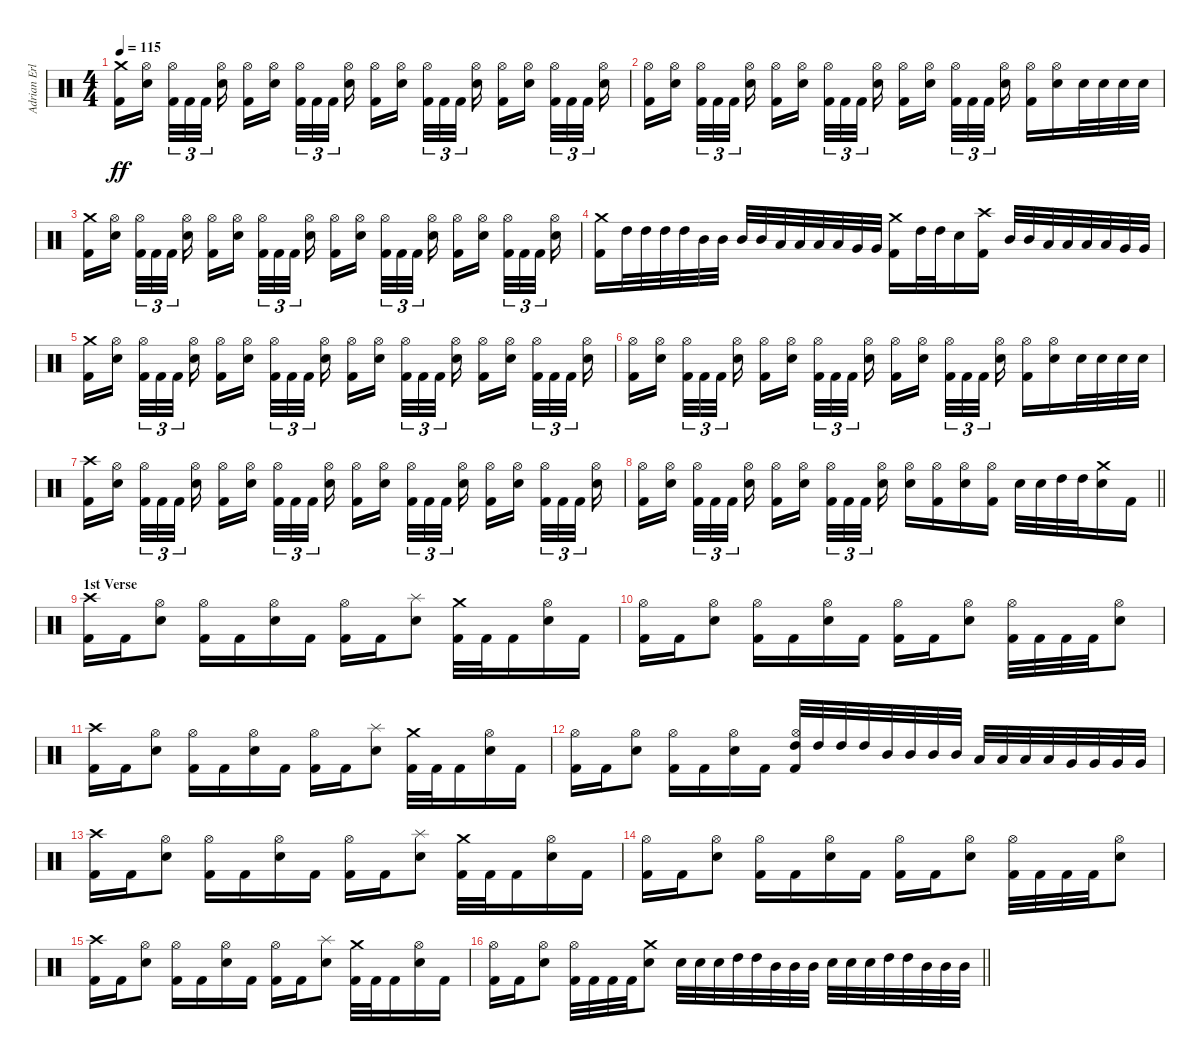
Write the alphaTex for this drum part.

\track ("Adrian Erlandsson" "Adrian Erl") {instrument percussion}
\staff {score}
\articulation defaults
\ts (4 4)
\tempo 115
\clef neutral
\ks c
("Kick (hit) 2" "Crash medium (hit)").16{dy ff} ("Electric Snare (hit)" "Hi-Hat (open)").16{beam splitsecondary} ("Kick (hit) 2" "Hi-Hat (open)").32{tu (3 2)} "Kick (hit) 2".32{tu (3 2)} "Kick (hit) 2".32{tu (3 2) beam splitsecondary} ("Electric Snare (hit)" "Hi-Hat (open)").16 ("Kick (hit) 2" "Hi-Hat (open)").16 ("Electric Snare (hit)" "Hi-Hat (open)").16{beam splitsecondary} ("Kick (hit) 2" "Hi-Hat (open)").32{tu (3 2)} "Kick (hit) 2".32{tu (3 2)} "Kick (hit) 2".32{tu (3 2) beam splitsecondary} ("Electric Snare (hit)" "Hi-Hat (open)").16 ("Kick (hit) 2" "Hi-Hat (open)").16 ("Electric Snare (hit)" "Hi-Hat (open)").16{beam splitsecondary} ("Kick (hit) 2" "Hi-Hat (open)").32{tu (3 2)} "Kick (hit) 2".32{tu (3 2)} "Kick (hit) 2".32{tu (3 2) beam splitsecondary} ("Electric Snare (hit)" "Hi-Hat (open)").16 ("Kick (hit) 2" "Hi-Hat (open)").16 ("Electric Snare (hit)" "Hi-Hat (open)").16{beam splitsecondary} ("Kick (hit) 2" "Hi-Hat (open)").32{tu (3 2)} "Kick (hit) 2".32{tu (3 2)} "Kick (hit) 2".32{tu (3 2) beam splitsecondary} ("Electric Snare (hit)" "Hi-Hat (open)").16 |
("Kick (hit) 2" "Hi-Hat (open)").16 ("Electric Snare (hit)" "Hi-Hat (open)").16{beam splitsecondary} ("Kick (hit) 2" "Hi-Hat (open)").32{tu (3 2)} "Kick (hit) 2".32{tu (3 2)} "Kick (hit) 2".32{tu (3 2) beam splitsecondary} ("Electric Snare (hit)" "Hi-Hat (open)").16 ("Kick (hit) 2" "Hi-Hat (open)").16 ("Electric Snare (hit)" "Hi-Hat (open)").16{beam splitsecondary} ("Kick (hit) 2" "Hi-Hat (open)").32{tu (3 2)} "Kick (hit) 2".32{tu (3 2)} "Kick (hit) 2".32{tu (3 2) beam splitsecondary} ("Electric Snare (hit)" "Hi-Hat (open)").16 ("Kick (hit) 2" "Hi-Hat (open)").16 ("Electric Snare (hit)" "Hi-Hat (open)").16{beam splitsecondary} ("Kick (hit) 2" "Hi-Hat (open)").32{tu (3 2)} "Kick (hit) 2".32{tu (3 2)} "Kick (hit) 2".32{tu (3 2) beam splitsecondary} ("Electric Snare (hit)" "Hi-Hat (open)").16 ("Kick (hit) 2" "Hi-Hat (open)").16 ("Electric Snare (hit)" "Hi-Hat (open)").16 "Electric Snare (hit)".32 "Electric Snare (hit)".32 "Electric Snare (hit)".32 "Electric Snare (hit)".32 |
("Kick (hit) 2" "Crash medium (hit)").16 ("Electric Snare (hit)" "Hi-Hat (open)").16{beam splitsecondary} ("Kick (hit) 2" "Hi-Hat (open)").32{tu (3 2)} "Kick (hit) 2".32{tu (3 2)} "Kick (hit) 2".32{tu (3 2) beam splitsecondary} ("Electric Snare (hit)" "Hi-Hat (open)").16 ("Kick (hit) 2" "Hi-Hat (open)").16 ("Electric Snare (hit)" "Hi-Hat (open)").16{beam splitsecondary} ("Kick (hit) 2" "Hi-Hat (open)").32{tu (3 2)} "Kick (hit) 2".32{tu (3 2)} "Kick (hit) 2".32{tu (3 2) beam splitsecondary} ("Electric Snare (hit)" "Hi-Hat (open)").16 ("Kick (hit) 2" "Hi-Hat (open)").16 ("Electric Snare (hit)" "Hi-Hat (open)").16{beam splitsecondary} ("Kick (hit) 2" "Hi-Hat (open)").32{tu (3 2)} "Kick (hit) 2".32{tu (3 2)} "Kick (hit) 2".32{tu (3 2) beam splitsecondary} ("Electric Snare (hit)" "Hi-Hat (open)").16 ("Kick (hit) 2" "Hi-Hat (open)").16 ("Electric Snare (hit)" "Hi-Hat (open)").16{beam splitsecondary} ("Kick (hit) 2" "Hi-Hat (open)").32{tu (3 2)} "Kick (hit) 2".32{tu (3 2)} "Kick (hit) 2".32{tu (3 2) beam splitsecondary} ("Electric Snare (hit)" "Hi-Hat (open)").16 |
("Kick (hit) 2" "Crash medium (hit)").16 "High Tom (hit)".32 "High Tom (hit)".32 "High Tom (hit)".32 "High Tom (hit)".32 "Mid Tom (hit)".32 "Mid Tom (hit)".32 "Mid Tom (hit)".32 "Mid Tom (hit)".32 "Low Tom (hit)".32 "Low Tom (hit)".32 "Low Tom (hit)".32 "Low Tom (hit)".32 "Very Low Tom (hit)".32 "Very Low Tom (hit)".32 ("Kick (hit) 2" "Crash medium (hit)").16 "High Tom (hit)".32 "High Tom (hit)".32 "Electric Snare (hit)".16 ("Kick (hit) 2" "Crash high (hit)").16 "Mid Tom (hit)".32 "Mid Tom (hit)".32 "Low Tom (hit)".32 "Low Tom (hit)".32 "Low Tom (hit)".32 "Low Tom (hit)".32 "Very Low Tom (hit)".32 "Very Low Tom (hit)".32 |
("Kick (hit) 2" "Crash medium (hit)").16 ("Electric Snare (hit)" "Hi-Hat (open)").16{beam splitsecondary} ("Kick (hit) 2" "Hi-Hat (open)").32{tu (3 2)} "Kick (hit) 2".32{tu (3 2)} "Kick (hit) 2".32{tu (3 2) beam splitsecondary} ("Electric Snare (hit)" "Hi-Hat (open)").16 ("Kick (hit) 2" "Hi-Hat (open)").16 ("Electric Snare (hit)" "Hi-Hat (open)").16{beam splitsecondary} ("Kick (hit) 2" "Hi-Hat (open)").32{tu (3 2)} "Kick (hit) 2".32{tu (3 2)} "Kick (hit) 2".32{tu (3 2) beam splitsecondary} ("Electric Snare (hit)" "Hi-Hat (open)").16 ("Kick (hit) 2" "Hi-Hat (open)").16 ("Electric Snare (hit)" "Hi-Hat (open)").16{beam splitsecondary} ("Kick (hit) 2" "Hi-Hat (open)").32{tu (3 2)} "Kick (hit) 2".32{tu (3 2)} "Kick (hit) 2".32{tu (3 2) beam splitsecondary} ("Electric Snare (hit)" "Hi-Hat (open)").16 ("Kick (hit) 2" "Hi-Hat (open)").16 ("Electric Snare (hit)" "Hi-Hat (open)").16{beam splitsecondary} ("Kick (hit) 2" "Hi-Hat (open)").32{tu (3 2)} "Kick (hit) 2".32{tu (3 2)} "Kick (hit) 2".32{tu (3 2) beam splitsecondary} ("Electric Snare (hit)" "Hi-Hat (open)").16 |
("Kick (hit) 2" "Hi-Hat (open)").16 ("Electric Snare (hit)" "Hi-Hat (open)").16{beam splitsecondary} ("Kick (hit) 2" "Hi-Hat (open)").32{tu (3 2)} "Kick (hit) 2".32{tu (3 2)} "Kick (hit) 2".32{tu (3 2) beam splitsecondary} ("Electric Snare (hit)" "Hi-Hat (open)").16 ("Kick (hit) 2" "Hi-Hat (open)").16 ("Electric Snare (hit)" "Hi-Hat (open)").16{beam splitsecondary} ("Kick (hit) 2" "Hi-Hat (open)").32{tu (3 2)} "Kick (hit) 2".32{tu (3 2)} "Kick (hit) 2".32{tu (3 2) beam splitsecondary} ("Electric Snare (hit)" "Hi-Hat (open)").16 ("Kick (hit) 2" "Hi-Hat (open)").16 ("Electric Snare (hit)" "Hi-Hat (open)").16{beam splitsecondary} ("Kick (hit) 2" "Hi-Hat (open)").32{tu (3 2)} "Kick (hit) 2".32{tu (3 2)} "Kick (hit) 2".32{tu (3 2) beam splitsecondary} ("Electric Snare (hit)" "Hi-Hat (open)").16 ("Kick (hit) 2" "Hi-Hat (open)").16 ("Electric Snare (hit)" "Hi-Hat (open)").16 "Electric Snare (hit)".32 "Electric Snare (hit)".32 "Electric Snare (hit)".32 "Electric Snare (hit)".32 |
("Kick (hit) 2" "Crash high (hit)").16 ("Electric Snare (hit)" "Hi-Hat (open)").16{beam splitsecondary} ("Kick (hit) 2" "Hi-Hat (open)").32{tu (3 2)} "Kick (hit) 2".32{tu (3 2)} "Kick (hit) 2".32{tu (3 2) beam splitsecondary} ("Electric Snare (hit)" "Hi-Hat (open)").16 ("Kick (hit) 2" "Hi-Hat (open)").16 ("Electric Snare (hit)" "Hi-Hat (open)").16{beam splitsecondary} ("Kick (hit) 2" "Hi-Hat (open)").32{tu (3 2)} "Kick (hit) 2".32{tu (3 2)} "Kick (hit) 2".32{tu (3 2) beam splitsecondary} ("Electric Snare (hit)" "Hi-Hat (open)").16 ("Kick (hit) 2" "Hi-Hat (open)").16 ("Electric Snare (hit)" "Hi-Hat (open)").16{beam splitsecondary} ("Kick (hit) 2" "Hi-Hat (open)").32{tu (3 2)} "Kick (hit) 2".32{tu (3 2)} "Kick (hit) 2".32{tu (3 2) beam splitsecondary} ("Electric Snare (hit)" "Hi-Hat (open)").16 ("Kick (hit) 2" "Hi-Hat (open)").16 ("Electric Snare (hit)" "Hi-Hat (open)").16{beam splitsecondary} ("Kick (hit) 2" "Hi-Hat (open)").32{tu (3 2)} "Kick (hit) 2".32{tu (3 2)} "Kick (hit) 2".32{tu (3 2) beam splitsecondary} ("Electric Snare (hit)" "Hi-Hat (open)").16 |
\barLineRight lightlight
("Kick (hit) 2" "Hi-Hat (open)").16 ("Electric Snare (hit)" "Hi-Hat (open)").16{beam splitsecondary} ("Kick (hit) 2" "Hi-Hat (open)").32{tu (3 2)} "Kick (hit) 2".32{tu (3 2)} "Kick (hit) 2".32{tu (3 2) beam splitsecondary} ("Electric Snare (hit)" "Hi-Hat (open)").16 ("Kick (hit) 2" "Hi-Hat (open)").16 ("Electric Snare (hit)" "Hi-Hat (open)").16{beam splitsecondary} ("Kick (hit) 2" "Hi-Hat (open)").32{tu (3 2)} "Kick (hit) 2".32{tu (3 2)} "Kick (hit) 2".32{tu (3 2) beam splitsecondary} ("Electric Snare (hit)" "Hi-Hat (open)").16 ("Electric Snare (hit)" "Hi-Hat (open)").16 ("Kick (hit) 2" "Hi-Hat (open)").16 ("Electric Snare (hit)" "Hi-Hat (open)").16 ("Kick (hit) 2" "Hi-Hat (open)").16 "Electric Snare (hit)".32 "Electric Snare (hit)".32 "High Tom (hit)".32 "High Tom (hit)".32 ("Electric Snare (hit)" "Crash medium (hit)").16 "Kick (hit) 2".16 |
\section ("" "1st Verse")
("Kick (hit) 2" "Crash high (hit)").16 "Kick (hit) 2".16 ("Electric Snare (hit)" "Hi-Hat (open)").8 ("Kick (hit) 2" "Hi-Hat (open)").16 "Kick (hit) 2".16 ("Electric Snare (hit)" "Hi-Hat (open)").16 "Kick (hit) 2".16 ("Kick (hit) 2" "Hi-Hat (open)").16 "Kick (hit) 2".16 ("Electric Snare (hit)" "Splash (hit)").8 ("Kick (hit) 2" "Crash medium (hit)").32 "Kick (hit) 2".32 "Kick (hit) 2".16 ("Electric Snare (hit)" "Hi-Hat (open)").16 "Kick (hit) 2".16 |
("Kick (hit) 2" "Hi-Hat (open)").16 "Kick (hit) 2".16 ("Electric Snare (hit)" "Hi-Hat (open)").8 ("Kick (hit) 2" "Hi-Hat (open)").16 "Kick (hit) 2".16 ("Electric Snare (hit)" "Hi-Hat (open)").16 "Kick (hit) 2".16 ("Kick (hit) 2" "Hi-Hat (open)").16 "Kick (hit) 2".16 ("Electric Snare (hit)" "Hi-Hat (open)").8 ("Kick (hit) 2" "Hi-Hat (open)").32 "Kick (hit) 2".32 "Kick (hit) 2".32 "Kick (hit) 2".32 ("Electric Snare (hit)" "Hi-Hat (open)").8 |
("Kick (hit) 2" "Crash high (hit)").16 "Kick (hit) 2".16 ("Electric Snare (hit)" "Hi-Hat (open)").8 ("Kick (hit) 2" "Hi-Hat (open)").16 "Kick (hit) 2".16 ("Electric Snare (hit)" "Hi-Hat (open)").16 "Kick (hit) 2".16 ("Kick (hit) 2" "Hi-Hat (open)").16 "Kick (hit) 2".16 ("Electric Snare (hit)" "Splash (hit)").8 ("Kick (hit) 2" "Crash medium (hit)").32 "Kick (hit) 2".32 "Kick (hit) 2".16 ("Electric Snare (hit)" "Hi-Hat (open)").16 "Kick (hit) 2".16 |
("Kick (hit) 2" "Hi-Hat (open)").16 "Kick (hit) 2".16 ("Electric Snare (hit)" "Hi-Hat (open)").8 ("Kick (hit) 2" "Hi-Hat (open)").16 "Kick (hit) 2".16 ("Electric Snare (hit)" "Hi-Hat (open)").16 "Kick (hit) 2".16 ("Kick (hit) 2" "High Tom (hit)" "Hi-Hat (open)").32 "High Tom (hit)".32 "High Tom (hit)".32 "High Tom (hit)".32 "Mid Tom (hit)".32 "Mid Tom (hit)".32 "Mid Tom (hit)".32 "Mid Tom (hit)".32 "Low Tom (hit)".32 "Low Tom (hit)".32 "Low Tom (hit)".32 "Low Tom (hit)".32 "Very Low Tom (hit)".32 "Very Low Tom (hit)".32 "Very Low Tom (hit)".32 "Very Low Tom (hit)".32 |
("Kick (hit) 2" "Crash high (hit)").16 "Kick (hit) 2".16 ("Electric Snare (hit)" "Hi-Hat (open)").8 ("Kick (hit) 2" "Hi-Hat (open)").16 "Kick (hit) 2".16 ("Electric Snare (hit)" "Hi-Hat (open)").16 "Kick (hit) 2".16 ("Kick (hit) 2" "Hi-Hat (open)").16 "Kick (hit) 2".16 ("Electric Snare (hit)" "Splash (hit)").8 ("Kick (hit) 2" "Crash medium (hit)").32 "Kick (hit) 2".32 "Kick (hit) 2".16 ("Electric Snare (hit)" "Hi-Hat (open)").16 "Kick (hit) 2".16 |
("Kick (hit) 2" "Hi-Hat (open)").16 "Kick (hit) 2".16 ("Electric Snare (hit)" "Hi-Hat (open)").8 ("Kick (hit) 2" "Hi-Hat (open)").16 "Kick (hit) 2".16 ("Electric Snare (hit)" "Hi-Hat (open)").16 "Kick (hit) 2".16 ("Kick (hit) 2" "Hi-Hat (open)").16 "Kick (hit) 2".16 ("Electric Snare (hit)" "Hi-Hat (open)").8 ("Kick (hit) 2" "Hi-Hat (open)").32 "Kick (hit) 2".32 "Kick (hit) 2".32 "Kick (hit) 2".32 ("Electric Snare (hit)" "Hi-Hat (open)").8 |
("Kick (hit) 2" "Crash high (hit)").16 "Kick (hit) 2".16 ("Electric Snare (hit)" "Hi-Hat (open)").8 ("Kick (hit) 2" "Hi-Hat (open)").16 "Kick (hit) 2".16 ("Electric Snare (hit)" "Hi-Hat (open)").16 "Kick (hit) 2".16 ("Kick (hit) 2" "Hi-Hat (open)").16 "Kick (hit) 2".16 ("Electric Snare (hit)" "Splash (hit)").8 ("Kick (hit) 2" "Crash medium (hit)").32 "Kick (hit) 2".32 "Kick (hit) 2".16 ("Electric Snare (hit)" "Hi-Hat (open)").16 "Kick (hit) 2".16 |
\barLineRight lightlight
("Kick (hit) 2" "Hi-Hat (open)").16 "Kick (hit) 2".16 ("Electric Snare (hit)" "Hi-Hat (open)").8 ("Kick (hit) 2" "Hi-Hat (open)").32 "Kick (hit) 2".32 "Kick (hit) 2".32 "Kick (hit) 2".32 ("Electric Snare (hit)" "Crash medium (hit)").8 "Electric Snare (hit)".32 "Electric Snare (hit)".32 "Electric Snare (hit)".32 "High Tom (hit)".32 "High Tom (hit)".32 "Mid Tom (hit)".32 "Mid Tom (hit)".32 "Mid Tom (hit)".32 "Electric Snare (hit)".32 "Electric Snare (hit)".32 "Electric Snare (hit)".32 "High Tom (hit)".32 "High Tom (hit)".32 "Mid Tom (hit)".32 "Mid Tom (hit)".32 "Mid Tom (hit)".32
